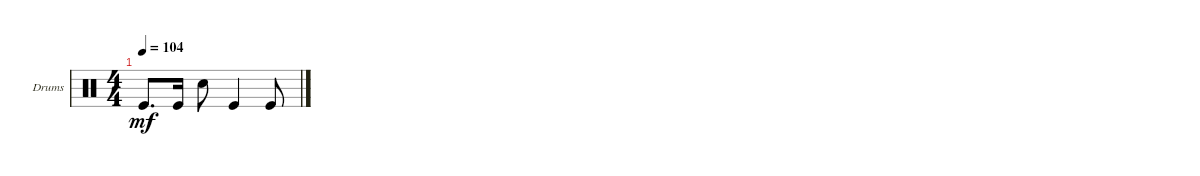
\bracketExtendMode groupsimilarinstruments
\firstSystemTrackNameOrientation horizontal
\otherSystemsTrackNameOrientation horizontal
\track ("Drums" "Drums") {instrument percussion}
\staff {score}
\articulation defaults
\ts (4 4)
\tempo 104
\clef neutral
\ks c "Kick (hit)".8{d dy mf} "Kick (hit)".16 "Snare (hit) 2".8 "Kick (hit)".4 "Kick (hit)".8
